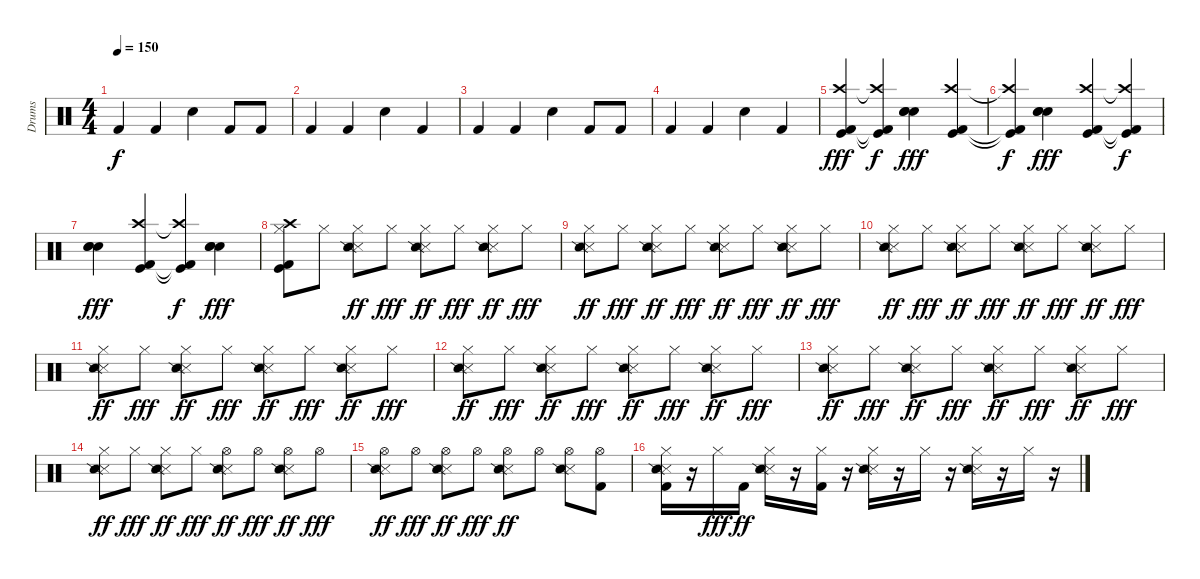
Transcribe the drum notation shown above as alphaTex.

\track ("Drums" "Drums") {instrument percussion}
\staff
\articulation defaults
\ts (4 4)
\tempo 150
\clef neutral
\ks c "Kick (hit) 2".4{dy f} "Kick (hit) 2".4 "Snare (hit) 2".4 "Kick (hit) 2".8 "Kick (hit) 2".8
|
"Kick (hit) 2".4 "Kick (hit) 2".4 "Snare (hit) 2".4 "Kick (hit) 2".4 |
"Kick (hit) 2".4 "Kick (hit) 2".4 "Snare (hit) 2".4 "Kick (hit) 2".8 "Kick (hit) 2".8 |
"Kick (hit) 2".4 "Kick (hit) 2".4 "Snare (hit) 2".4 "Kick (hit) 2".4 |
("Crash high (hit)" "Kick (hit)" "Kick (hit) 2").4{dy fff} ("Crash high (hit)"{t} "Kick (hit)"{t} "Kick (hit) 2"{t}).4{dy f} ("Snare (hit) 2" "Snare (hit) 2" "Snare (hit) 2").4{dy fff} ("Crash high (hit)" "Kick (hit)" "Kick (hit) 2").4 |
("Crash high (hit)"{t} "Kick (hit)"{t} "Kick (hit) 2"{t}).4{dy f} ("Snare (hit) 2" "Snare (hit) 2" "Snare (hit) 2").4{dy fff} ("Crash high (hit)" "Kick (hit)" "Kick (hit) 2").4 ("Crash high (hit)"{t} "Kick (hit)"{t} "Kick (hit) 2"{t}).4{dy f} |
("Snare (hit) 2" "Snare (hit) 2" "Snare (hit) 2").4{dy fff} ("Crash high (hit)" "Kick (hit)" "Kick (hit) 2").4 ("Crash high (hit)"{t} "Kick (hit)"{t} "Kick (hit) 2"{t}).4{dy f} ("Snare (hit) 2" "Snare (hit) 2" "Snare (hit) 2").4{dy fff} |
("Crash high (hit)" "Hi-Hat (closed)" "Kick (hit)" "Kick (hit) 2").8 "Hi-Hat (closed)".8 ("Hi-Hat (closed)" "Snare (side stick) 3" "Snare (side stick) 2").8{dy ff} "Hi-Hat (closed)".8{dy fff} ("Hi-Hat (closed)" "Snare (side stick) 3" "Snare (side stick) 2").8{dy ff} "Hi-Hat (closed)".8{dy fff} ("Hi-Hat (closed)" "Snare (side stick) 3" "Snare (side stick) 2").8{dy ff} "Hi-Hat (closed)".8{dy fff} |
("Hi-Hat (closed)" "Snare (side stick) 3" "Snare (side stick) 2").8{dy ff} "Hi-Hat (closed)".8{dy fff} ("Hi-Hat (closed)" "Snare (side stick) 3" "Snare (side stick) 2").8{dy ff} "Hi-Hat (closed)".8{dy fff} ("Hi-Hat (closed)" "Snare (side stick) 3" "Snare (side stick) 2").8{dy ff} "Hi-Hat (closed)".8{dy fff} ("Hi-Hat (closed)" "Snare (side stick) 3" "Snare (side stick) 2").8{dy ff} "Hi-Hat (closed)".8{dy fff} |
("Hi-Hat (closed)" "Snare (side stick) 3" "Snare (side stick) 2").8{dy ff} "Hi-Hat (closed)".8{dy fff} ("Hi-Hat (closed)" "Snare (side stick) 3" "Snare (side stick) 2").8{dy ff} "Hi-Hat (closed)".8{dy fff} ("Hi-Hat (closed)" "Snare (side stick) 3" "Snare (side stick) 2").8{dy ff} "Hi-Hat (closed)".8{dy fff} ("Hi-Hat (closed)" "Snare (side stick) 3" "Snare (side stick) 2").8{dy ff} "Hi-Hat (closed)".8{dy fff} |
("Hi-Hat (closed)" "Snare (side stick) 3" "Snare (side stick) 2").8{dy ff} "Hi-Hat (closed)".8{dy fff} ("Hi-Hat (closed)" "Snare (side stick) 3" "Snare (side stick) 2").8{dy ff} "Hi-Hat (closed)".8{dy fff} ("Hi-Hat (closed)" "Snare (side stick) 3" "Snare (side stick) 2").8{dy ff} "Hi-Hat (closed)".8{dy fff} ("Hi-Hat (closed)" "Snare (side stick) 3" "Snare (side stick) 2").8{dy ff} "Hi-Hat (closed)".8{dy fff} |
("Hi-Hat (closed)" "Snare (side stick) 3" "Snare (side stick) 2").8{dy ff} "Hi-Hat (closed)".8{dy fff} ("Hi-Hat (closed)" "Snare (side stick) 3" "Snare (side stick) 2").8{dy ff} "Hi-Hat (closed)".8{dy fff} ("Hi-Hat (closed)" "Snare (side stick) 3" "Snare (side stick) 2").8{dy ff} "Hi-Hat (closed)".8{dy fff} ("Hi-Hat (closed)" "Snare (side stick) 3" "Snare (side stick) 2").8{dy ff} "Hi-Hat (closed)".8{dy fff} |
("Hi-Hat (closed)" "Snare (side stick) 3" "Snare (side stick) 2").8{dy ff} "Hi-Hat (closed)".8{dy fff} ("Hi-Hat (closed)" "Snare (side stick) 3" "Snare (side stick) 2").8{dy ff} "Hi-Hat (closed)".8{dy fff} ("Hi-Hat (closed)" "Snare (side stick) 3" "Snare (side stick) 2").8{dy ff} "Hi-Hat (closed)".8{dy fff} ("Hi-Hat (closed)" "Snare (side stick) 3" "Snare (side stick) 2").8{dy ff} "Hi-Hat (closed)".8{dy fff} |
("Hi-Hat (closed)" "Snare (side stick) 3" "Snare (side stick) 2").8{dy ff} "Hi-Hat (closed)".8{dy fff} ("Hi-Hat (closed)" "Snare (side stick) 3" "Snare (side stick) 2").8{dy ff} "Hi-Hat (closed)".8{dy fff} ("Hi-Hat (open)" "Snare (side stick) 3" "Snare (side stick) 2").8{dy ff} "Hi-Hat (open)".8{dy fff} ("Hi-Hat (open)" "Snare (side stick) 3" "Snare (side stick) 2").8{dy ff} "Hi-Hat (open)".8{dy fff} |
("Hi-Hat (open)" "Snare (side stick) 3" "Snare (side stick) 2").8{dy ff} "Hi-Hat (open)".8{dy fff} ("Hi-Hat (open)" "Snare (side stick) 3" "Snare (side stick) 2").8{dy ff} "Hi-Hat (open)".8{dy fff} ("Hi-Hat (open)" "Snare (side stick) 3" "Snare (side stick) 2").8{dy ff} "Hi-Hat (open)".8 ("Hi-Hat (open)" "Snare (side stick) 3" "Snare (side stick) 2").8 ("Hi-Hat (open)" "Kick (hit) 2").8 |
("Hi-Hat (closed)" "Snare (side stick) 3" "Snare (side stick) 2" "Kick (hit) 2").16 r.16 "Hi-Hat (closed)".16{dy fff} "Kick (hit) 2".16{dy ff} ("Hi-Hat (closed)" "Snare (side stick) 3" "Snare (side stick) 2").16 r.16 ("Hi-Hat (closed)" "Kick (hit) 2").16 r.16 ("Hi-Hat (closed)" "Snare (side stick) 3" "Snare (side stick) 2").16 r.16 "Hi-Hat (closed)".16 r.16 ("Hi-Hat (closed)" "Snare (side stick) 3" "Snare (side stick) 2").16 r.16 "Hi-Hat (closed)".16 r.16
